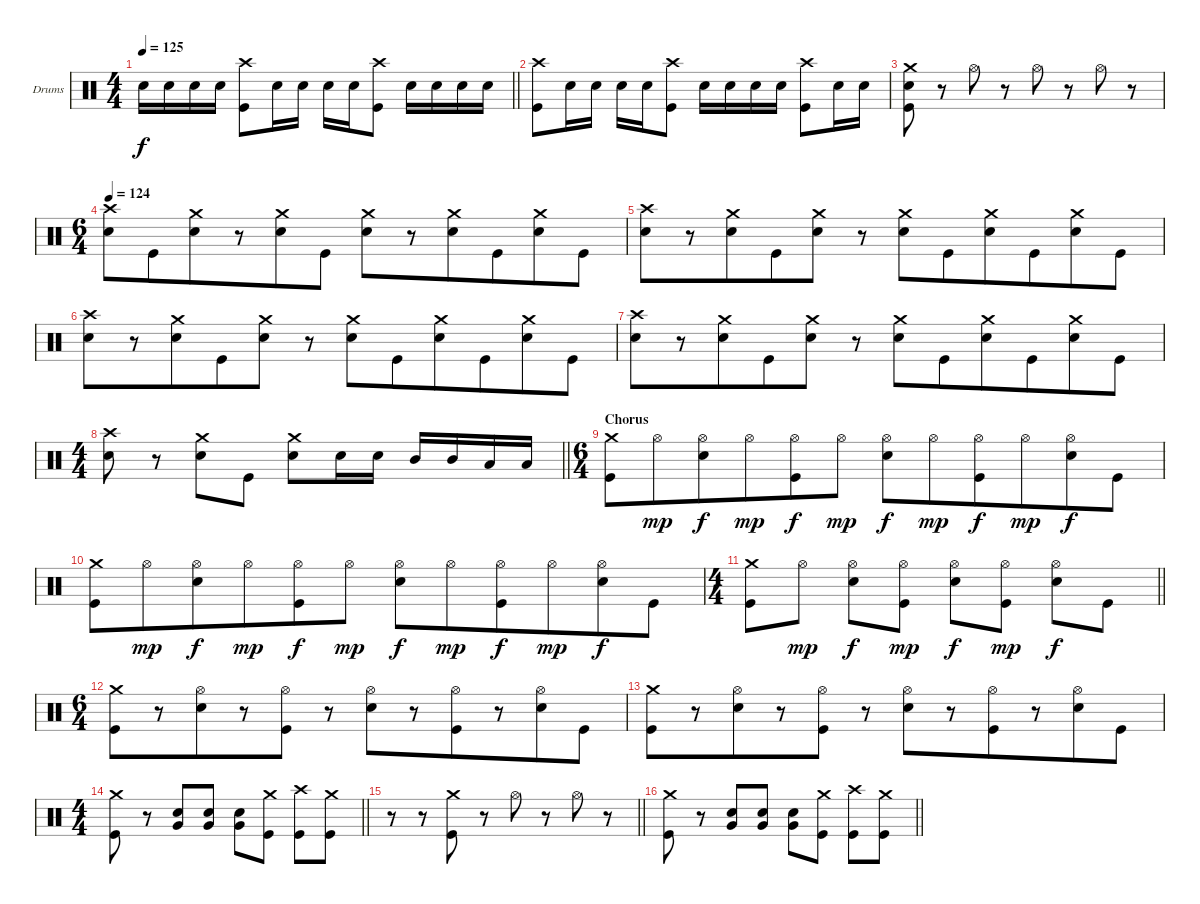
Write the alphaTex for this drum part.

\bracketExtendMode groupsimilarinstruments
\firstSystemTrackNameOrientation horizontal
\otherSystemsTrackNameOrientation horizontal
\track ("Drumkit" "Drums") {instrument percussion}
\staff {score}
\articulation defaults
\ts (4 4)
\tempo 125
\clef neutral
\barLineRight lightlight
\ks c "Snare (hit) 2".16{dy f} "Snare (hit) 2".16 "Snare (hit) 2".16 "Snare (hit) 2".16
("Crash high (hit)" "Kick (hit)").8 "Snare (hit) 2".16 "Snare (hit) 2".16 "Snare (hit) 2".16 "Snare (hit) 2".16 ("Crash high (hit)" "Kick (hit)").8 "Snare (hit) 2".16 "Snare (hit) 2".16 "Snare (hit) 2".16 "Snare (hit) 2".16 |
("Crash high (hit)" "Kick (hit)").8 "Snare (hit) 2".16 "Snare (hit) 2".16 "Snare (hit) 2".16 "Snare (hit) 2".16 ("Crash high (hit)" "Kick (hit)").8 "Snare (hit) 2".16 "Snare (hit) 2".16 "Snare (hit) 2".16 "Snare (hit) 2".16 ("Crash high (hit)" "Kick (hit)").8 "Snare (hit) 2".16 "Snare (hit) 2".16 |
("Crash medium (hit)" "Snare (hit) 2" "Kick (hit)").8 r.8 "Hi-Hat (open)".8 r.8 "Hi-Hat (open)".8 r.8 "Hi-Hat (open)".8 r.8 |
\ts (6 4)
\beaming (8 6 6)
\tempo 124
("Crash high (hit)" "Snare (hit) 2").8 "Kick (hit)".8 ("Crash medium (hit)" "Snare (hit) 2").8 r.8 ("Crash medium (hit)" "Snare (hit) 2").8 "Kick (hit)".8 ("Crash medium (hit)" "Snare (hit) 2").8 r.8 ("Crash medium (hit)" "Snare (hit) 2").8 "Kick (hit)".8 ("Crash medium (hit)" "Snare (hit) 2").8 "Kick (hit)".8 |
("Crash high (hit)" "Snare (hit) 2").8 r.8 ("Crash medium (hit)" "Snare (hit) 2").8 "Kick (hit)".8 ("Crash medium (hit)" "Snare (hit) 2").8 r.8 ("Crash medium (hit)" "Snare (hit) 2").8 "Kick (hit)".8 ("Crash medium (hit)" "Snare (hit) 2").8 "Kick (hit)".8 ("Crash medium (hit)" "Snare (hit) 2").8 "Kick (hit)".8 |
("Crash high (hit)" "Snare (hit) 2").8 r.8 ("Crash medium (hit)" "Snare (hit) 2").8 "Kick (hit)".8 ("Crash medium (hit)" "Snare (hit) 2").8 r.8 ("Crash medium (hit)" "Snare (hit) 2").8 "Kick (hit)".8 ("Crash medium (hit)" "Snare (hit) 2").8 "Kick (hit)".8 ("Crash medium (hit)" "Snare (hit) 2").8 "Kick (hit)".8 |
("Crash high (hit)" "Snare (hit) 2").8 r.8 ("Crash medium (hit)" "Snare (hit) 2").8 "Kick (hit)".8 ("Crash medium (hit)" "Snare (hit) 2").8 r.8 ("Crash medium (hit)" "Snare (hit) 2").8 "Kick (hit)".8 ("Crash medium (hit)" "Snare (hit) 2").8 "Kick (hit)".8 ("Crash medium (hit)" "Snare (hit) 2").8 "Kick (hit)".8 |
\ts (4 4)
\beaming (8 2 2 2 2)
\barLineRight lightlight
("Crash high (hit)" "Snare (hit) 2").8 r.8 ("Crash medium (hit)" "Snare (hit) 2").8 "Kick (hit)".8 ("Crash medium (hit)" "Snare (hit) 2").8 "Snare (hit) 2".16 "Snare (hit) 2".16 "Mid Tom (hit)".16 "Mid Tom (hit)".16 "Low Tom (hit)".16 "Low Tom (hit)".16 |
\ts (6 4)
\beaming (8 6 6)
\section ("" "Chorus")
("Crash medium (hit)" "Kick (hit)").8 "Hi-Hat (open)".8{dy mp} ("Hi-Hat (open)" "Snare (hit) 2").8{dy f} "Hi-Hat (open)".8{dy mp} ("Hi-Hat (open)" "Kick (hit)").8{dy f} "Hi-Hat (open)".8{dy mp} ("Hi-Hat (open)" "Snare (hit) 2").8{dy f} "Hi-Hat (open)".8{dy mp} ("Hi-Hat (open)" "Kick (hit)").8{dy f} "Hi-Hat (open)".8{dy mp} ("Hi-Hat (open)" "Snare (hit) 2").8{dy f} "Kick (hit)".8 |
("Crash medium (hit)" "Kick (hit)").8 "Hi-Hat (open)".8{dy mp} ("Hi-Hat (open)" "Snare (hit) 2").8{dy f} "Hi-Hat (open)".8{dy mp} ("Hi-Hat (open)" "Kick (hit)").8{dy f} "Hi-Hat (open)".8{dy mp} ("Hi-Hat (open)" "Snare (hit) 2").8{dy f} "Hi-Hat (open)".8{dy mp} ("Hi-Hat (open)" "Kick (hit)").8{dy f} "Hi-Hat (open)".8{dy mp} ("Hi-Hat (open)" "Snare (hit) 2").8{dy f} "Kick (hit)".8 |
\ts (4 4)
\beaming (8 2 2 2 2)
\barLineRight lightlight
("Crash medium (hit)" "Kick (hit)").8 "Hi-Hat (open)".8{dy mp} ("Hi-Hat (open)" "Snare (hit) 2").8{dy f} ("Hi-Hat (open)" "Kick (hit)").8{dy mp} ("Hi-Hat (open)" "Snare (hit) 2").8{dy f} ("Hi-Hat (open)" "Kick (hit)").8{dy mp} ("Hi-Hat (open)" "Snare (hit) 2").8{dy f} "Kick (hit)".8 |
\ts (6 4)
\beaming (8 6 6)
("Crash medium (hit)" "Kick (hit)").8 r.8 ("Hi-Hat (open)" "Snare (hit) 2").8 r.8 ("Hi-Hat (open)" "Kick (hit)").8 r.8 ("Hi-Hat (open)" "Snare (hit) 2").8 r.8 ("Hi-Hat (open)" "Kick (hit)").8 r.8 ("Hi-Hat (open)" "Snare (hit) 2").8 "Kick (hit)".8 |
("Crash medium (hit)" "Kick (hit)").8 r.8 ("Hi-Hat (open)" "Snare (hit) 2").8 r.8 ("Hi-Hat (open)" "Kick (hit)").8 r.8 ("Hi-Hat (open)" "Snare (hit) 2").8 r.8 ("Hi-Hat (open)" "Kick (hit)").8 r.8 ("Hi-Hat (open)" "Snare (hit) 2").8 "Kick (hit)".8 |
\ts (4 4)
\beaming (8 2 2 2 2)
\barLineRight lightlight
("Crash medium (hit)" "Kick (hit)").8 r.8 ("Very Low Tom (hit)" "Snare (hit) 2").8 ("Very Low Tom (hit)" "Snare (hit) 2").8 ("Very Low Tom (hit)" "Snare (hit) 2").8 ("Crash medium (hit)" "Kick (hit)").8 ("Crash high (hit)" "Kick (hit)").8 ("Crash medium (hit)" "Kick (hit)").8 |
\barLineRight lightlight
r.8 r.8 ("Crash medium (hit)" "Kick (hit)").8 r.8 "Hi-Hat (open)".8 r.8 "Hi-Hat (open)".8 r.8 |
\barLineRight lightlight
("Crash medium (hit)" "Kick (hit)").8 r.8 ("Very Low Tom (hit)" "Snare (hit) 2").8 ("Very Low Tom (hit)" "Snare (hit) 2").8 ("Very Low Tom (hit)" "Snare (hit) 2").8 ("Crash medium (hit)" "Kick (hit)").8 ("Crash high (hit)" "Kick (hit)").8 ("Crash medium (hit)" "Kick (hit)").8
